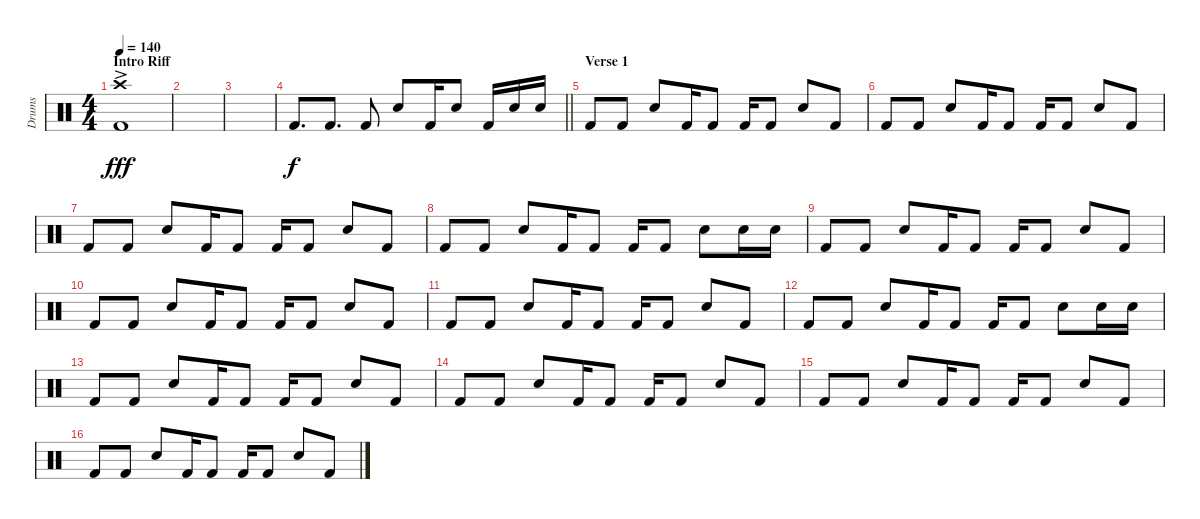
\track ("Drums" "Drums") {instrument percussion}
\staff {score}
\articulation defaults
\ts (4 4)
\section ("" "Intro Riff")
\tempo 140
\clef neutral
\ks c
("Crash high (hit)"{ac} "Kick (hit) 2"{ac}).1{dy fff} |
|
|
\barLineRight lightlight "Kick (hit) 2".8{d dy f} "Kick (hit) 2".8{d} "Kick (hit) 2".8 "Snare (hit) 2".8 "Kick (hit) 2".16 "Snare (hit) 2".8 "Kick (hit) 2".16 "Snare (hit) 2".16 "Snare (hit) 2".16
|
\section ("" "Verse 1")
"Kick (hit) 2".8 "Kick (hit) 2".8 "Snare (hit) 2".8 "Kick (hit) 2".16 "Kick (hit) 2".8 "Kick (hit) 2".16 "Kick (hit) 2".8 "Snare (hit) 2".8 "Kick (hit) 2".8 |
"Kick (hit) 2".8 "Kick (hit) 2".8 "Snare (hit) 2".8 "Kick (hit) 2".16 "Kick (hit) 2".8 "Kick (hit) 2".16 "Kick (hit) 2".8 "Snare (hit) 2".8 "Kick (hit) 2".8 |
"Kick (hit) 2".8 "Kick (hit) 2".8 "Snare (hit) 2".8 "Kick (hit) 2".16 "Kick (hit) 2".8 "Kick (hit) 2".16 "Kick (hit) 2".8 "Snare (hit) 2".8 "Kick (hit) 2".8 |
"Kick (hit) 2".8 "Kick (hit) 2".8 "Snare (hit) 2".8 "Kick (hit) 2".16 "Kick (hit) 2".8 "Kick (hit) 2".16 "Kick (hit) 2".8 "Snare (hit) 2".8 "Snare (hit) 2".16 "Snare (hit) 2".16 |
"Kick (hit) 2".8 "Kick (hit) 2".8 "Snare (hit) 2".8 "Kick (hit) 2".16 "Kick (hit) 2".8 "Kick (hit) 2".16 "Kick (hit) 2".8 "Snare (hit) 2".8 "Kick (hit) 2".8 |
"Kick (hit) 2".8 "Kick (hit) 2".8 "Snare (hit) 2".8 "Kick (hit) 2".16 "Kick (hit) 2".8 "Kick (hit) 2".16 "Kick (hit) 2".8 "Snare (hit) 2".8 "Kick (hit) 2".8 |
"Kick (hit) 2".8 "Kick (hit) 2".8 "Snare (hit) 2".8 "Kick (hit) 2".16 "Kick (hit) 2".8 "Kick (hit) 2".16 "Kick (hit) 2".8 "Snare (hit) 2".8 "Kick (hit) 2".8 |
"Kick (hit) 2".8 "Kick (hit) 2".8 "Snare (hit) 2".8 "Kick (hit) 2".16 "Kick (hit) 2".8 "Kick (hit) 2".16 "Kick (hit) 2".8 "Snare (hit) 2".8 "Snare (hit) 2".16 "Snare (hit) 2".16 |
"Kick (hit) 2".8 "Kick (hit) 2".8 "Snare (hit) 2".8 "Kick (hit) 2".16 "Kick (hit) 2".8 "Kick (hit) 2".16 "Kick (hit) 2".8 "Snare (hit) 2".8 "Kick (hit) 2".8 |
"Kick (hit) 2".8 "Kick (hit) 2".8 "Snare (hit) 2".8 "Kick (hit) 2".16 "Kick (hit) 2".8 "Kick (hit) 2".16 "Kick (hit) 2".8 "Snare (hit) 2".8 "Kick (hit) 2".8 |
"Kick (hit) 2".8 "Kick (hit) 2".8 "Snare (hit) 2".8 "Kick (hit) 2".16 "Kick (hit) 2".8 "Kick (hit) 2".16 "Kick (hit) 2".8 "Snare (hit) 2".8 "Kick (hit) 2".8 |
"Kick (hit) 2".8 "Kick (hit) 2".8 "Snare (hit) 2".8 "Kick (hit) 2".16 "Kick (hit) 2".8 "Kick (hit) 2".16 "Kick (hit) 2".8 "Snare (hit) 2".8 "Kick (hit) 2".8
